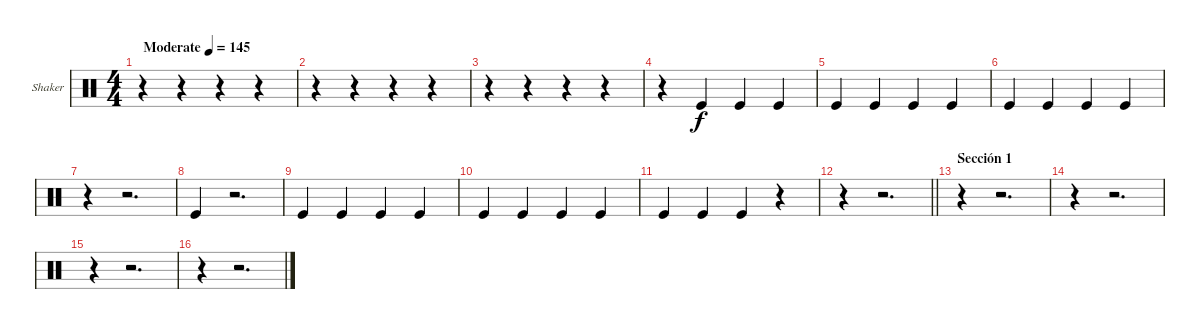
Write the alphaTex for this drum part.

\bracketExtendMode groupsimilarinstruments
\firstSystemTrackNameOrientation horizontal
\otherSystemsTrackNameOrientation horizontal
\track ("Shaker" "Shaker") {instrument percussion}
\staff {score}
\articulation defaults
\ts (4 4)
\beaming (8 2 2 2 2)
\tempo (145 "Moderate")
\clef neutral
\ks c
r.4{dy f} r.4 r.4 r.4 |
r.4 r.4 r.4 r.4 |
r.4 r.4 r.4 r.4 |
r.4 "Kick (hit)".4 "Kick (hit)".4 "Kick (hit)".4 |
"Kick (hit)".4 "Kick (hit)".4 "Kick (hit)".4 "Kick (hit)".4 |
"Kick (hit)".4 "Kick (hit)".4 "Kick (hit)".4 "Kick (hit)".4 |
r.4 r.2{d} |
"Kick (hit)".4 r.2{d} |
"Kick (hit)".4 "Kick (hit)".4 "Kick (hit)".4 "Kick (hit)".4 |
"Kick (hit)".4 "Kick (hit)".4 "Kick (hit)".4 "Kick (hit)".4 |
"Kick (hit)".4 "Kick (hit)".4 "Kick (hit)".4 r.4 |
\barLineRight lightlight
r.4 r.2{d} |
\section ("" "Sección 1")
r.4 r.2{d} |
r.4 r.2{d} |
r.4 r.2{d} |
r.4 r.2{d}
